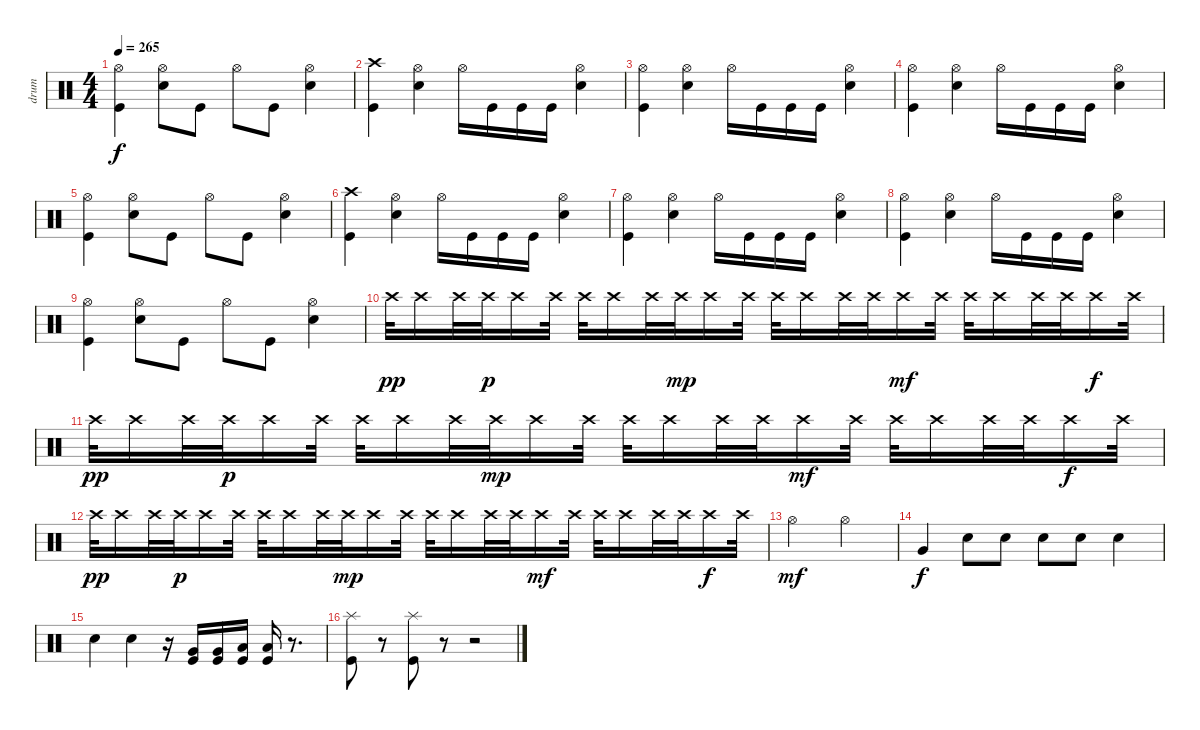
\track ("drum" "drum") {instrument percussion}
\staff {score}
\articulation defaults
\ts (4 4)
\tempo 265
\clef neutral
\ks c
("Kick (hit)" "Hi-Hat (open)").4{dy f} ("Electric Snare (hit)" "Hi-Hat (open)").8 "Kick (hit)".8 "Hi-Hat (open)".8 "Kick (hit)".8 ("Electric Snare (hit)" "Hi-Hat (open)").4 |
("Kick (hit)" "Crash high (hit)").4 ("Electric Snare (hit)" "Hi-Hat (open)").4 "Hi-Hat (open)".16 "Kick (hit)".16 "Kick (hit)".16 "Kick (hit)".16 ("Electric Snare (hit)" "Hi-Hat (open)").4 |
("Kick (hit)" "Hi-Hat (open)").4 ("Electric Snare (hit)" "Hi-Hat (open)").4 "Hi-Hat (open)".16 "Kick (hit)".16 "Kick (hit)".16 "Kick (hit)".16 ("Electric Snare (hit)" "Hi-Hat (open)").4 |
("Kick (hit)" "Hi-Hat (open)").4 ("Electric Snare (hit)" "Hi-Hat (open)").4 "Hi-Hat (open)".16 "Kick (hit)".16 "Kick (hit)".16 "Kick (hit)".16 ("Electric Snare (hit)" "Hi-Hat (open)").4 |
("Kick (hit)" "Hi-Hat (open)").4 ("Electric Snare (hit)" "Hi-Hat (open)").8 "Kick (hit)".8 "Hi-Hat (open)".8 "Kick (hit)".8 ("Electric Snare (hit)" "Hi-Hat (open)").4 |
("Kick (hit)" "Crash high (hit)").4 ("Electric Snare (hit)" "Hi-Hat (open)").4 "Hi-Hat (open)".16 "Kick (hit)".16 "Kick (hit)".16 "Kick (hit)".16 ("Electric Snare (hit)" "Hi-Hat (open)").4 |
("Kick (hit)" "Hi-Hat (open)").4 ("Electric Snare (hit)" "Hi-Hat (open)").4 "Hi-Hat (open)".16 "Kick (hit)".16 "Kick (hit)".16 "Kick (hit)".16 ("Electric Snare (hit)" "Hi-Hat (open)").4 |
("Kick (hit)" "Hi-Hat (open)").4 ("Electric Snare (hit)" "Hi-Hat (open)").4 "Hi-Hat (open)".16 "Kick (hit)".16 "Kick (hit)".16 "Kick (hit)".16 ("Electric Snare (hit)" "Hi-Hat (open)").4 |
("Kick (hit)" "Hi-Hat (open)").4 ("Electric Snare (hit)" "Hi-Hat (open)").8 "Kick (hit)".8 "Hi-Hat (open)".8 "Kick (hit)".8 ("Electric Snare (hit)" "Hi-Hat (open)").4 |
"Crash high (hit)".32{dy pp} "Crash high (hit)".16 "Crash high (hit)".32 "Crash high (hit)".32{dy p} "Crash high (hit)".16 "Crash high (hit)".32 "Crash high (hit)".32 "Crash high (hit)".16 "Crash high (hit)".32 "Crash high (hit)".32{dy mp} "Crash high (hit)".16 "Crash high (hit)".32 "Crash high (hit)".32 "Crash high (hit)".16 "Crash high (hit)".32 "Crash high (hit)".32 "Crash high (hit)".16{dy mf} "Crash high (hit)".32 "Crash high (hit)".32 "Crash high (hit)".16 "Crash high (hit)".32 "Crash high (hit)".32 "Crash high (hit)".16{dy f} "Crash high (hit)".32 |
"Crash high (hit)".32{dy pp} "Crash high (hit)".16 "Crash high (hit)".32 "Crash high (hit)".32{dy p} "Crash high (hit)".16 "Crash high (hit)".32 "Crash high (hit)".32 "Crash high (hit)".16 "Crash high (hit)".32 "Crash high (hit)".32{dy mp} "Crash high (hit)".16 "Crash high (hit)".32 "Crash high (hit)".32 "Crash high (hit)".16 "Crash high (hit)".32 "Crash high (hit)".32 "Crash high (hit)".16{dy mf} "Crash high (hit)".32 "Crash high (hit)".32 "Crash high (hit)".16 "Crash high (hit)".32 "Crash high (hit)".32 "Crash high (hit)".16{dy f} "Crash high (hit)".32 |
"Crash high (hit)".32{dy pp} "Crash high (hit)".16 "Crash high (hit)".32 "Crash high (hit)".32{dy p} "Crash high (hit)".16 "Crash high (hit)".32 "Crash high (hit)".32 "Crash high (hit)".16 "Crash high (hit)".32 "Crash high (hit)".32{dy mp} "Crash high (hit)".16 "Crash high (hit)".32 "Crash high (hit)".32 "Crash high (hit)".16 "Crash high (hit)".32 "Crash high (hit)".32 "Crash high (hit)".16{dy mf} "Crash high (hit)".32 "Crash high (hit)".32 "Crash high (hit)".16 "Crash high (hit)".32 "Crash high (hit)".32 "Crash high (hit)".16{dy f} "Crash high (hit)".32 |
"Hi-Hat (open)".2{dy mf} "Hi-Hat (open)".2 |
"Very Low Tom (hit)".4{dy f} "Electric Snare (hit)".8 "Electric Snare (hit)".8 "Electric Snare (hit)".8 "Electric Snare (hit)".8 "Electric Snare (hit)".4 |
"Electric Snare (hit)".4 "Electric Snare (hit)".4 r.16 ("Kick (hit)" "Very Low Tom (hit)").16 ("Kick (hit)" "Very Low Tom (hit)").16 ("Kick (hit)" "Low Floor Tom (hit)").16 ("Kick (hit)" "Low Floor Tom (hit)").16 r.8{d} |
("Kick (hit)" "Splash (hit)").8 r.8 ("Kick (hit)" "Splash (hit)").8 r.8 r.2
